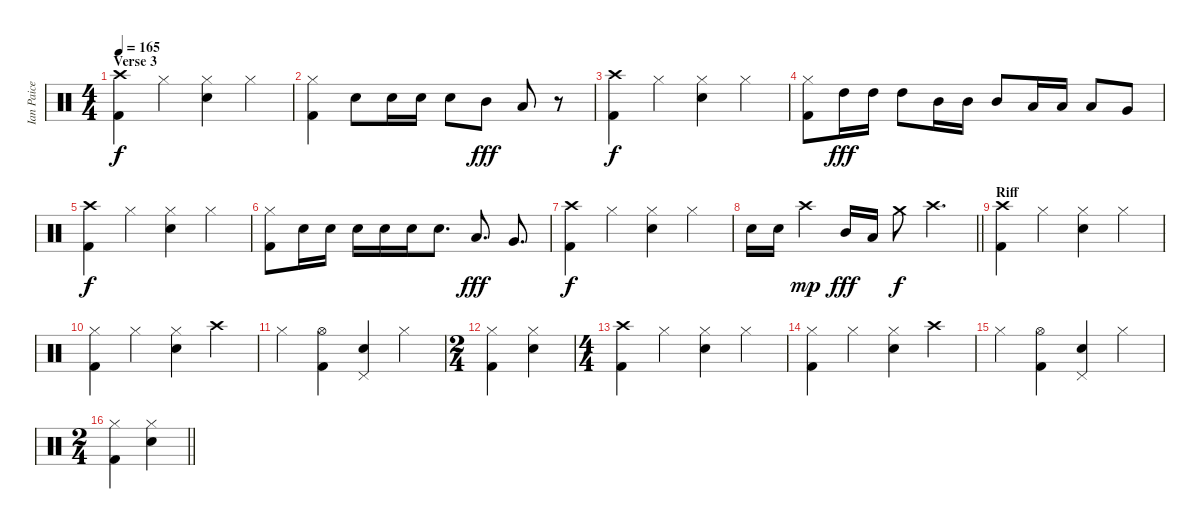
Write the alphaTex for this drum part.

\track ("Ian Paice" "Ian Paice") {instrument percussion}
\staff {score}
\articulation defaults
\ts (4 4)
\section ("" "Verse 3")
\tempo 165
\clef neutral
\ks c
("Crash high (hit)" "Kick (hit) 2").4{dy f} "Hi-Hat (closed)".4 ("Hi-Hat (closed)" "Snare (hit) 2").4 "Hi-Hat (closed)".4 |
("Hi-Hat (closed)" "Kick (hit) 2").4 "Snare (hit) 2".8 "Snare (hit) 2".16 "Snare (hit) 2".16 "Snare (hit) 2".8 "Mid Tom (hit)".8{dy fff} "Low Tom (hit)".8 r.8 |
("Crash high (hit)" "Kick (hit) 2").4{dy f} "Hi-Hat (closed)".4 ("Hi-Hat (closed)" "Snare (hit) 2").4 "Hi-Hat (closed)".4 |
("Hi-Hat (closed)" "Kick (hit) 2").8 "High Tom (hit)".16{dy fff} "High Tom (hit)".16 "High Tom (hit)".8 "Mid Tom (hit)".16 "Mid Tom (hit)".16 "Mid Tom (hit)".8 "Low Tom (hit)".16 "Low Tom (hit)".16 "Low Tom (hit)".8 "Very Low Tom (hit)".8 |
("Crash high (hit)" "Kick (hit) 2").4{dy f} "Hi-Hat (closed)".4 ("Hi-Hat (closed)" "Snare (hit) 2").4 "Hi-Hat (closed)".4 |
("Hi-Hat (closed)" "Kick (hit) 2").8 "Snare (hit) 2".16 "Snare (hit) 2".16 "Snare (hit) 2".16 "Snare (hit) 2".16 "Snare (hit) 2".16 "Snare (hit) 2".8{d} "Low Tom (hit)".8{d dy fff} "Very Low Tom (hit)".8{d} |
("Crash high (hit)" "Kick (hit) 2").4{dy f} "Hi-Hat (closed)".4 ("Hi-Hat (closed)" "Snare (hit) 2").4 "Hi-Hat (closed)".4 |
\barLineRight lightlight "Snare (hit) 2".16 "Snare (hit) 2".16 "Crash high (hit)".4{dy mp} "Mid Tom (hit)".16{dy fff} "Low Tom (hit)".16 "Crash medium (hit)".8{dy f} "Crash high (hit)".4{d}
|
\section ("" "Riff")
("Crash high (hit)" "Kick (hit) 2").4 "Hi-Hat (closed)".4 ("Hi-Hat (closed)" "Snare (hit) 2").4 "Hi-Hat (closed)".4 |
("Hi-Hat (closed)" "Kick (hit) 2").4 "Hi-Hat (closed)".4 ("Hi-Hat (closed)" "Snare (hit) 2").4 "Crash high (hit)".4 |
"Hi-Hat (closed)".4 ("Hi-Hat (open)" "Kick (hit) 2").4 ("Pedal Hi-Hat (hit)" "Snare (hit) 2").4 "Hi-Hat (closed)".4 |
\ts (2 4)
("Hi-Hat (closed)" "Kick (hit) 2").4 ("Hi-Hat (closed)" "Snare (hit) 2").4 |
\ts (4 4)
("Crash high (hit)" "Kick (hit) 2").4 "Hi-Hat (closed)".4 ("Hi-Hat (closed)" "Snare (hit) 2").4 "Hi-Hat (closed)".4 |
("Hi-Hat (closed)" "Kick (hit) 2").4 "Hi-Hat (closed)".4 ("Hi-Hat (closed)" "Snare (hit) 2").4 "Crash high (hit)".4 |
"Hi-Hat (closed)".4 ("Hi-Hat (open)" "Kick (hit) 2").4 ("Pedal Hi-Hat (hit)" "Snare (hit) 2").4 "Hi-Hat (closed)".4 |
\ts (2 4)
\barLineRight lightlight
("Hi-Hat (closed)" "Kick (hit) 2").4 ("Hi-Hat (closed)" "Snare (hit) 2").4
